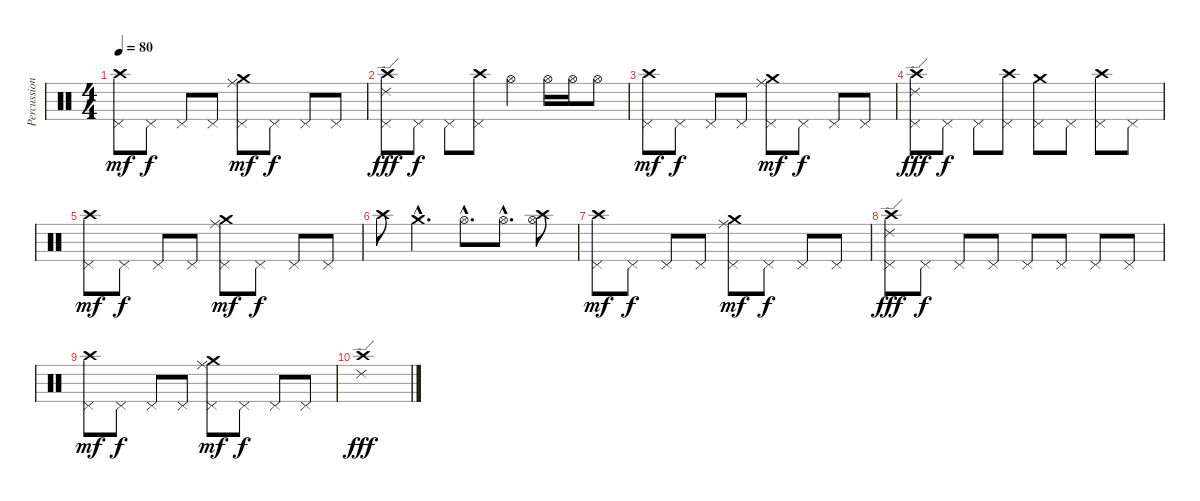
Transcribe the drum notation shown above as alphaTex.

\track ("Percussion" "Percussion") {instrument percussion}
\staff {score}
\articulation defaults
\ts (4 4)
\tempo 80
\clef neutral
\ks c
("Crash high (hit)" "Pedal Hi-Hat (hit)").8{dy mf} "Pedal Hi-Hat (hit)".8{dy f} "Pedal Hi-Hat (hit)".8 "Pedal Hi-Hat (hit)".8 ("Ride (middle)" "Crash medium (hit)" "Pedal Hi-Hat (hit)").8{dy mf} "Pedal Hi-Hat (hit)".8{dy f} "Pedal Hi-Hat (hit)".8 "Pedal Hi-Hat (hit)".8 |
("Crash high (hit)" "Ride (edge) 2" "Pedal Hi-Hat (hit)").8{dy fff} "Pedal Hi-Hat (hit)".8{dy f} "Pedal Hi-Hat (hit)".8 ("Crash high (hit)" "Pedal Hi-Hat (hit)").8 "Hi-Hat (open)".4 "Hi-Hat (open)".16 "Hi-Hat (open)".16 "Hi-Hat (open)".8 |
("Crash high (hit)" "Pedal Hi-Hat (hit)").8{dy mf} "Pedal Hi-Hat (hit)".8{dy f} "Pedal Hi-Hat (hit)".8 "Pedal Hi-Hat (hit)".8 ("Ride (middle)" "Crash medium (hit)" "Pedal Hi-Hat (hit)").8{dy mf} "Pedal Hi-Hat (hit)".8{dy f} "Pedal Hi-Hat (hit)".8 "Pedal Hi-Hat (hit)".8 |
("Crash high (hit)" "Ride (edge) 2" "Pedal Hi-Hat (hit)").8{dy fff} "Pedal Hi-Hat (hit)".8{dy f} "Pedal Hi-Hat (hit)".8 ("Crash high (hit)" "Pedal Hi-Hat (hit)").8 ("Crash medium (hit)" "Pedal Hi-Hat (hit)").8 "Pedal Hi-Hat (hit)".8 ("Crash high (hit)" "Pedal Hi-Hat (hit)").8 "Pedal Hi-Hat (hit)".8 |
("Crash high (hit)" "Pedal Hi-Hat (hit)").8{dy mf} "Pedal Hi-Hat (hit)".8{dy f} "Pedal Hi-Hat (hit)".8 "Pedal Hi-Hat (hit)".8 ("Ride (middle)" "Crash medium (hit)" "Pedal Hi-Hat (hit)").8{dy mf} "Pedal Hi-Hat (hit)".8{dy f} "Pedal Hi-Hat (hit)".8 "Pedal Hi-Hat (hit)".8 |
"Crash high (hit)".8 "Crash medium (hit)"{hac}.4{d} "Hi-Hat (open)"{hac}.8{d} "Hi-Hat (open)"{hac}.8{d} ("Crash high (hit)" "Hi-Hat (open)").8 |
("Crash high (hit)" "Pedal Hi-Hat (hit)").8{dy mf} "Pedal Hi-Hat (hit)".8{dy f} "Pedal Hi-Hat (hit)".8 "Pedal Hi-Hat (hit)".8 ("Ride (middle)" "Crash medium (hit)" "Pedal Hi-Hat (hit)").8{dy mf} "Pedal Hi-Hat (hit)".8{dy f} "Pedal Hi-Hat (hit)".8 "Pedal Hi-Hat (hit)".8 |
("Crash high (hit)" "Ride (edge) 2" "Pedal Hi-Hat (hit)").8{dy fff} "Pedal Hi-Hat (hit)".8{dy f} "Pedal Hi-Hat (hit)".8 "Pedal Hi-Hat (hit)".8 "Pedal Hi-Hat (hit)".8 "Pedal Hi-Hat (hit)".8 "Pedal Hi-Hat (hit)".8 "Pedal Hi-Hat (hit)".8 |
("Crash high (hit)" "Pedal Hi-Hat (hit)").8{dy mf} "Pedal Hi-Hat (hit)".8{dy f} "Pedal Hi-Hat (hit)".8 "Pedal Hi-Hat (hit)".8 ("Ride (middle)" "Crash medium (hit)" "Pedal Hi-Hat (hit)").8{dy mf} "Pedal Hi-Hat (hit)".8{dy f} "Pedal Hi-Hat (hit)".8 "Pedal Hi-Hat (hit)".8 |
("Crash high (hit)" "Ride (edge) 2").1{dy fff}
